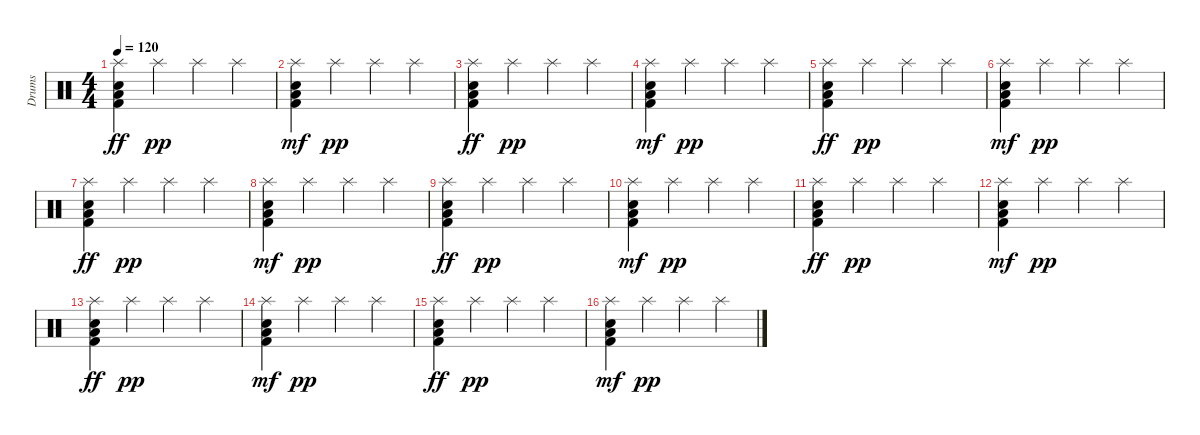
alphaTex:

\track ("Drums" "Drums") {instrument percussion}
\staff {score}
\articulation defaults
\ts (4 4)
\tempo 120
\clef neutral
\ks c
("Splash (hit)" "Snare (hit) 2" "Low Floor Tom (hit)" "Kick (hit) 2").4{dy ff} "Splash (hit)".4{dy pp} "Splash (hit)".4 "Splash (hit)".4 |
("Splash (hit)" "Low Floor Tom (hit)" "Snare (hit) 2" "Kick (hit) 2").4{dy mf} "Splash (hit)".4{dy pp} "Splash (hit)".4 "Splash (hit)".4 |
("Splash (hit)" "Snare (hit) 2" "Low Floor Tom (hit)" "Kick (hit) 2").4{dy ff volume 14} "Splash (hit)".4{dy pp} "Splash (hit)".4 "Splash (hit)".4 |
("Splash (hit)" "Low Floor Tom (hit)" "Snare (hit) 2" "Kick (hit) 2").4{dy mf} "Splash (hit)".4{dy pp} "Splash (hit)".4 "Splash (hit)".4 |
("Splash (hit)" "Snare (hit) 2" "Low Floor Tom (hit)" "Kick (hit) 2").4{dy ff} "Splash (hit)".4{dy pp} "Splash (hit)".4 "Splash (hit)".4 |
("Splash (hit)" "Low Floor Tom (hit)" "Snare (hit) 2" "Kick (hit) 2").4{dy mf} "Splash (hit)".4{dy pp} "Splash (hit)".4 "Splash (hit)".4 |
("Splash (hit)" "Snare (hit) 2" "Low Floor Tom (hit)" "Kick (hit) 2").4{dy ff} "Splash (hit)".4{dy pp} "Splash (hit)".4 "Splash (hit)".4 |
("Splash (hit)" "Low Floor Tom (hit)" "Snare (hit) 2" "Kick (hit) 2").4{dy mf} "Splash (hit)".4{dy pp} "Splash (hit)".4 "Splash (hit)".4 |
("Splash (hit)" "Snare (hit) 2" "Low Floor Tom (hit)" "Kick (hit) 2").4{dy ff} "Splash (hit)".4{dy pp} "Splash (hit)".4 "Splash (hit)".4 |
("Splash (hit)" "Low Floor Tom (hit)" "Snare (hit) 2" "Kick (hit) 2").4{dy mf} "Splash (hit)".4{dy pp} "Splash (hit)".4 "Splash (hit)".4 |
("Splash (hit)" "Snare (hit) 2" "Low Floor Tom (hit)" "Kick (hit) 2").4{dy ff volume 14} "Splash (hit)".4{dy pp} "Splash (hit)".4 "Splash (hit)".4 |
("Splash (hit)" "Low Floor Tom (hit)" "Snare (hit) 2" "Kick (hit) 2").4{dy mf} "Splash (hit)".4{dy pp} "Splash (hit)".4 "Splash (hit)".4 |
("Splash (hit)" "Snare (hit) 2" "Low Floor Tom (hit)" "Kick (hit) 2").4{dy ff} "Splash (hit)".4{dy pp} "Splash (hit)".4 "Splash (hit)".4 |
("Splash (hit)" "Low Floor Tom (hit)" "Snare (hit) 2" "Kick (hit) 2").4{dy mf} "Splash (hit)".4{dy pp} "Splash (hit)".4 "Splash (hit)".4 |
("Splash (hit)" "Snare (hit) 2" "Low Floor Tom (hit)" "Kick (hit) 2").4{dy ff} "Splash (hit)".4{dy pp} "Splash (hit)".4 "Splash (hit)".4 |
("Splash (hit)" "Low Floor Tom (hit)" "Snare (hit) 2" "Kick (hit) 2").4{dy mf} "Splash (hit)".4{dy pp} "Splash (hit)".4 "Splash (hit)".4
